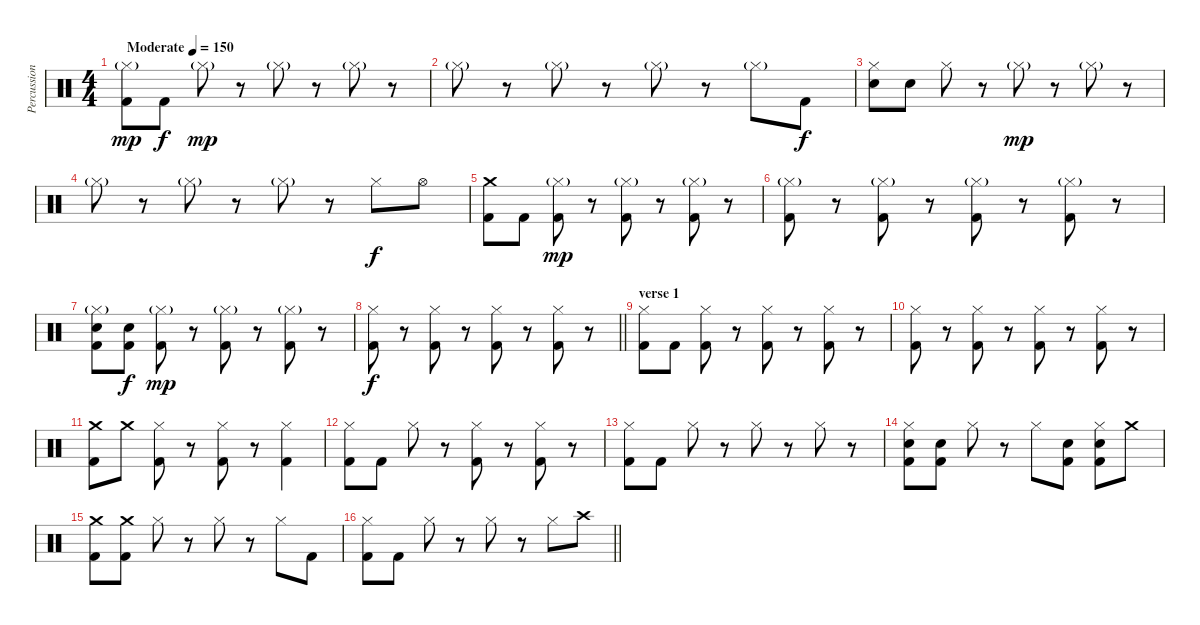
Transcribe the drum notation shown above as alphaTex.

\track ("Percussion" "Percussion") {instrument percussion}
\staff {score}
\articulation defaults
\ts (4 4)
\tempo (150 "Moderate")
\clef neutral
\ks c
("Hi-Hat (closed)"{g} "Kick (hit) 2").8{dy mp} "Kick (hit) 2".8{dy f} "Hi-Hat (closed)"{g}.8{dy mp} r.8 "Hi-Hat (closed)"{g}.8 r.8 "Hi-Hat (closed)"{g}.8 r.8 |
"Hi-Hat (closed)"{g}.8 r.8 "Hi-Hat (closed)"{g}.8 r.8 "Hi-Hat (closed)"{g}.8 r.8 "Hi-Hat (closed)"{g}.8 "Kick (hit) 2".8{dy f} |
("Hi-Hat (closed)" "Electric Snare (hit)").8 "Electric Snare (hit)".8 "Hi-Hat (closed)".8 r.8 "Hi-Hat (closed)"{g}.8{dy mp} r.8 "Hi-Hat (closed)"{g}.8 r.8 |
"Hi-Hat (closed)"{g}.8 r.8 "Hi-Hat (closed)"{g}.8 r.8 "Hi-Hat (closed)"{g}.8 r.8 "Hi-Hat (closed)".8{dy f} "Hi-Hat (open)".8 |
("Crash medium (hit)" "Kick (hit) 2").8 "Kick (hit) 2".8 ("Hi-Hat (closed)"{g} "Kick (hit) 2").8{dy mp} r.8 ("Hi-Hat (closed)"{g} "Kick (hit) 2").8 r.8 ("Hi-Hat (closed)"{g} "Kick (hit) 2").8 r.8 |
("Hi-Hat (closed)"{g} "Kick (hit) 2").8 r.8 ("Hi-Hat (closed)"{g} "Kick (hit) 2").8 r.8 ("Hi-Hat (closed)"{g} "Kick (hit) 2").8 r.8 ("Hi-Hat (closed)"{g} "Kick (hit) 2").8 r.8 |
("Hi-Hat (closed)"{g} "Electric Snare (hit)" "Kick (hit) 2").8 ("Electric Snare (hit)" "Kick (hit) 2").8{dy f} ("Hi-Hat (closed)"{g} "Kick (hit) 2").8{dy mp} r.8 ("Hi-Hat (closed)"{g} "Kick (hit) 2").8 r.8 ("Hi-Hat (closed)"{g} "Kick (hit) 2").8 r.8 |
\barLineRight lightlight
("Hi-Hat (closed)" "Kick (hit) 2").8{dy f} r.8 ("Hi-Hat (closed)" "Kick (hit) 2").8 r.8 ("Hi-Hat (closed)" "Kick (hit) 2").8 r.8 ("Hi-Hat (closed)" "Kick (hit) 2").8 r.8 |
\section ("" "verse 1")
("Hi-Hat (closed)" "Kick (hit) 2").8 "Kick (hit) 2".8 ("Hi-Hat (closed)" "Kick (hit) 2").8 r.8 ("Hi-Hat (closed)" "Kick (hit) 2").8 r.8 ("Hi-Hat (closed)" "Kick (hit) 2").8 r.8 |
("Hi-Hat (closed)" "Kick (hit) 2").8 r.8 ("Hi-Hat (closed)" "Kick (hit) 2").8 r.8 ("Hi-Hat (closed)" "Kick (hit) 2").8 r.8 ("Hi-Hat (closed)" "Kick (hit) 2").8 r.8 |
("Crash medium (hit)" "Kick (hit) 2").8 "Crash medium (hit)".8 ("Hi-Hat (closed)" "Kick (hit) 2").8 r.8 ("Hi-Hat (closed)" "Kick (hit) 2").8 r.8 ("Hi-Hat (closed)" "Kick (hit) 2").4 |
("Hi-Hat (closed)" "Kick (hit) 2").8 "Kick (hit) 2".8 "Hi-Hat (closed)".8 r.8 ("Hi-Hat (closed)" "Kick (hit) 2").8 r.8 ("Hi-Hat (closed)" "Kick (hit) 2").8 r.8 |
("Hi-Hat (closed)" "Kick (hit) 2").8 "Kick (hit) 2".8 "Hi-Hat (closed)".8 r.8 "Hi-Hat (closed)".8 r.8 "Hi-Hat (closed)".8 r.8 |
("Hi-Hat (closed)" "Electric Snare (hit)" "Kick (hit) 2").8 ("Electric Snare (hit)" "Kick (hit) 2").8 "Hi-Hat (closed)".8 r.8 "Hi-Hat (closed)".8 ("Electric Snare (hit)" "Kick (hit) 2").8 ("Hi-Hat (closed)" "Electric Snare (hit)" "Kick (hit) 2").8 "Crash medium (hit)".8 |
("Crash medium (hit)" "Kick (hit) 2").8 ("Crash medium (hit)" "Kick (hit) 2").8 "Hi-Hat (closed)".8 r.8 "Hi-Hat (closed)".8 r.8 "Hi-Hat (closed)".8 "Kick (hit) 2".8 |
\barLineRight lightlight
("Hi-Hat (closed)" "Kick (hit) 2").8 "Kick (hit) 2".8 "Hi-Hat (closed)".8 r.8 "Hi-Hat (closed)".8 r.8 "Hi-Hat (closed)".8 "Crash high (hit)".8
